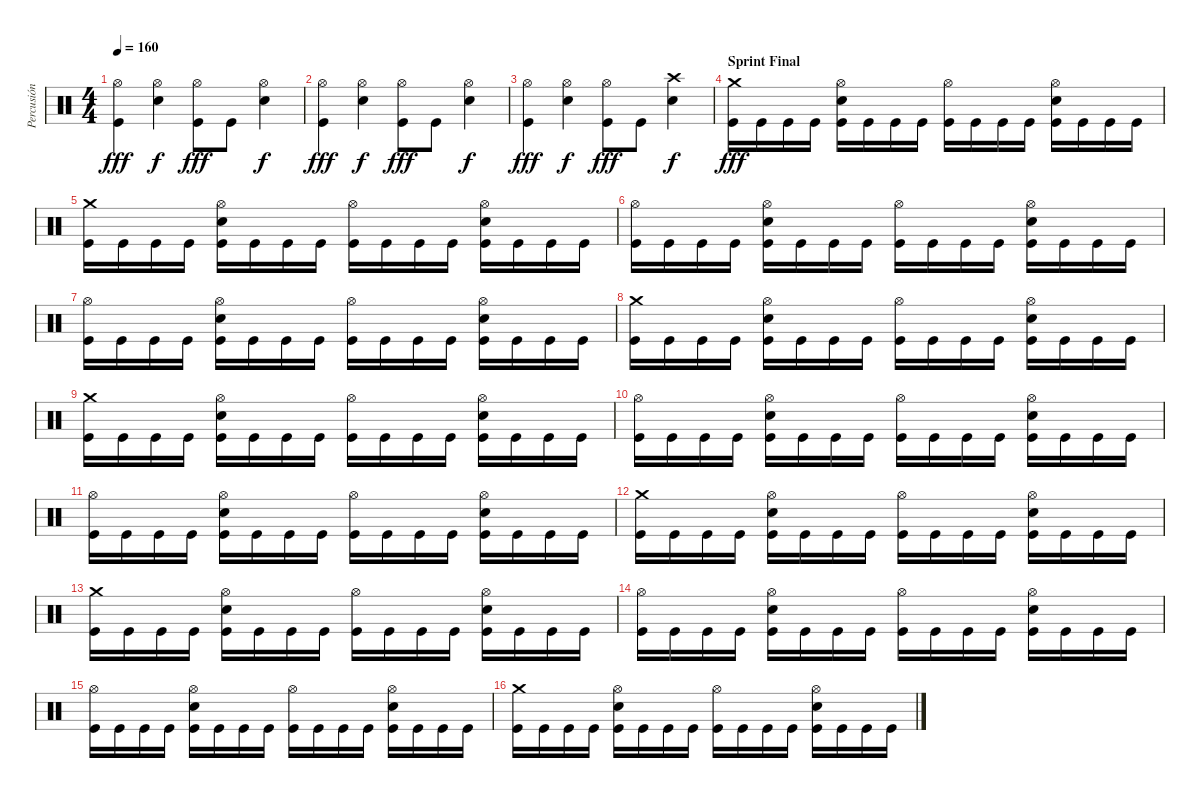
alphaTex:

\track ("Percusión" "Percusión") {instrument percussion}
\staff {score}
\articulation defaults
\ts (4 4)
\tempo 160
\clef neutral
\ks c
("Hi-Hat (open)" "Kick (hit)").4{dy fff} ("Hi-Hat (open)" "Electric Snare (hit)").4{dy f} ("Hi-Hat (open)" "Kick (hit)").8{dy fff} "Kick (hit)".8 ("Hi-Hat (open)" "Electric Snare (hit)").4{dy f} |
("Hi-Hat (open)" "Kick (hit)").4{dy fff} ("Hi-Hat (open)" "Electric Snare (hit)").4{dy f} ("Hi-Hat (open)" "Kick (hit)").8{dy fff} "Kick (hit)".8 ("Hi-Hat (open)" "Electric Snare (hit)").4{dy f} |
("Hi-Hat (open)" "Kick (hit)").4{dy fff} ("Hi-Hat (open)" "Electric Snare (hit)").4{dy f} ("Hi-Hat (open)" "Kick (hit)").8{dy fff} "Kick (hit)".8 ("Crash high (hit)" "Electric Snare (hit)").4{dy f} |
\section ("" "Sprint Final")
("Crash medium (hit)" "Kick (hit)").16{dy fff} "Kick (hit)".16 "Kick (hit)".16 "Kick (hit)".16 ("Hi-Hat (open)" "Electric Snare (hit)" "Kick (hit)").16 "Kick (hit)".16 "Kick (hit)".16 "Kick (hit)".16 ("Hi-Hat (open)" "Kick (hit)").16 "Kick (hit)".16 "Kick (hit)".16 "Kick (hit)".16 ("Hi-Hat (open)" "Electric Snare (hit)" "Kick (hit)").16 "Kick (hit)".16 "Kick (hit)".16 "Kick (hit)".16 |
("Crash medium (hit)" "Kick (hit)").16 "Kick (hit)".16 "Kick (hit)".16 "Kick (hit)".16 ("Hi-Hat (open)" "Electric Snare (hit)" "Kick (hit)").16 "Kick (hit)".16 "Kick (hit)".16 "Kick (hit)".16 ("Hi-Hat (open)" "Kick (hit)").16 "Kick (hit)".16 "Kick (hit)".16 "Kick (hit)".16 ("Hi-Hat (open)" "Electric Snare (hit)" "Kick (hit)").16 "Kick (hit)".16 "Kick (hit)".16 "Kick (hit)".16 |
("Hi-Hat (open)" "Kick (hit)").16 "Kick (hit)".16 "Kick (hit)".16 "Kick (hit)".16 ("Hi-Hat (open)" "Electric Snare (hit)" "Kick (hit)").16 "Kick (hit)".16 "Kick (hit)".16 "Kick (hit)".16 ("Hi-Hat (open)" "Kick (hit)").16 "Kick (hit)".16 "Kick (hit)".16 "Kick (hit)".16 ("Hi-Hat (open)" "Electric Snare (hit)" "Kick (hit)").16 "Kick (hit)".16 "Kick (hit)".16 "Kick (hit)".16 |
("Hi-Hat (open)" "Kick (hit)").16 "Kick (hit)".16 "Kick (hit)".16 "Kick (hit)".16 ("Hi-Hat (open)" "Electric Snare (hit)" "Kick (hit)").16 "Kick (hit)".16 "Kick (hit)".16 "Kick (hit)".16 ("Hi-Hat (open)" "Kick (hit)").16 "Kick (hit)".16 "Kick (hit)".16 "Kick (hit)".16 ("Hi-Hat (open)" "Electric Snare (hit)" "Kick (hit)").16 "Kick (hit)".16 "Kick (hit)".16 "Kick (hit)".16 |
("Crash medium (hit)" "Kick (hit)").16 "Kick (hit)".16 "Kick (hit)".16 "Kick (hit)".16 ("Hi-Hat (open)" "Electric Snare (hit)" "Kick (hit)").16 "Kick (hit)".16 "Kick (hit)".16 "Kick (hit)".16 ("Hi-Hat (open)" "Kick (hit)").16 "Kick (hit)".16 "Kick (hit)".16 "Kick (hit)".16 ("Hi-Hat (open)" "Electric Snare (hit)" "Kick (hit)").16 "Kick (hit)".16 "Kick (hit)".16 "Kick (hit)".16 |
("Crash medium (hit)" "Kick (hit)").16 "Kick (hit)".16 "Kick (hit)".16 "Kick (hit)".16 ("Hi-Hat (open)" "Electric Snare (hit)" "Kick (hit)").16 "Kick (hit)".16 "Kick (hit)".16 "Kick (hit)".16 ("Hi-Hat (open)" "Kick (hit)").16 "Kick (hit)".16 "Kick (hit)".16 "Kick (hit)".16 ("Hi-Hat (open)" "Electric Snare (hit)" "Kick (hit)").16 "Kick (hit)".16 "Kick (hit)".16 "Kick (hit)".16 |
("Hi-Hat (open)" "Kick (hit)").16 "Kick (hit)".16 "Kick (hit)".16 "Kick (hit)".16 ("Hi-Hat (open)" "Electric Snare (hit)" "Kick (hit)").16 "Kick (hit)".16 "Kick (hit)".16 "Kick (hit)".16 ("Hi-Hat (open)" "Kick (hit)").16 "Kick (hit)".16 "Kick (hit)".16 "Kick (hit)".16 ("Hi-Hat (open)" "Electric Snare (hit)" "Kick (hit)").16 "Kick (hit)".16 "Kick (hit)".16 "Kick (hit)".16 |
("Hi-Hat (open)" "Kick (hit)").16 "Kick (hit)".16 "Kick (hit)".16 "Kick (hit)".16 ("Hi-Hat (open)" "Electric Snare (hit)" "Kick (hit)").16 "Kick (hit)".16 "Kick (hit)".16 "Kick (hit)".16 ("Hi-Hat (open)" "Kick (hit)").16 "Kick (hit)".16 "Kick (hit)".16 "Kick (hit)".16 ("Hi-Hat (open)" "Electric Snare (hit)" "Kick (hit)").16 "Kick (hit)".16 "Kick (hit)".16 "Kick (hit)".16 |
("Crash medium (hit)" "Kick (hit)").16 "Kick (hit)".16 "Kick (hit)".16 "Kick (hit)".16 ("Hi-Hat (open)" "Electric Snare (hit)" "Kick (hit)").16 "Kick (hit)".16 "Kick (hit)".16 "Kick (hit)".16 ("Hi-Hat (open)" "Kick (hit)").16 "Kick (hit)".16 "Kick (hit)".16 "Kick (hit)".16 ("Hi-Hat (open)" "Electric Snare (hit)" "Kick (hit)").16 "Kick (hit)".16 "Kick (hit)".16 "Kick (hit)".16 |
("Crash medium (hit)" "Kick (hit)").16 "Kick (hit)".16 "Kick (hit)".16 "Kick (hit)".16 ("Hi-Hat (open)" "Electric Snare (hit)" "Kick (hit)").16 "Kick (hit)".16 "Kick (hit)".16 "Kick (hit)".16 ("Hi-Hat (open)" "Kick (hit)").16 "Kick (hit)".16 "Kick (hit)".16 "Kick (hit)".16 ("Hi-Hat (open)" "Electric Snare (hit)" "Kick (hit)").16 "Kick (hit)".16 "Kick (hit)".16 "Kick (hit)".16 |
("Hi-Hat (open)" "Kick (hit)").16 "Kick (hit)".16 "Kick (hit)".16 "Kick (hit)".16 ("Hi-Hat (open)" "Electric Snare (hit)" "Kick (hit)").16 "Kick (hit)".16 "Kick (hit)".16 "Kick (hit)".16 ("Hi-Hat (open)" "Kick (hit)").16 "Kick (hit)".16 "Kick (hit)".16 "Kick (hit)".16 ("Hi-Hat (open)" "Electric Snare (hit)" "Kick (hit)").16 "Kick (hit)".16 "Kick (hit)".16 "Kick (hit)".16 |
("Hi-Hat (open)" "Kick (hit)").16 "Kick (hit)".16 "Kick (hit)".16 "Kick (hit)".16 ("Hi-Hat (open)" "Electric Snare (hit)" "Kick (hit)").16 "Kick (hit)".16 "Kick (hit)".16 "Kick (hit)".16 ("Hi-Hat (open)" "Kick (hit)").16 "Kick (hit)".16 "Kick (hit)".16 "Kick (hit)".16 ("Hi-Hat (open)" "Electric Snare (hit)" "Kick (hit)").16 "Kick (hit)".16 "Kick (hit)".16 "Kick (hit)".16 |
("Crash medium (hit)" "Kick (hit)").16 "Kick (hit)".16 "Kick (hit)".16 "Kick (hit)".16 ("Hi-Hat (open)" "Electric Snare (hit)" "Kick (hit)").16 "Kick (hit)".16 "Kick (hit)".16 "Kick (hit)".16 ("Hi-Hat (open)" "Kick (hit)").16 "Kick (hit)".16 "Kick (hit)".16 "Kick (hit)".16 ("Hi-Hat (open)" "Electric Snare (hit)" "Kick (hit)").16 "Kick (hit)".16 "Kick (hit)".16 "Kick (hit)".16
